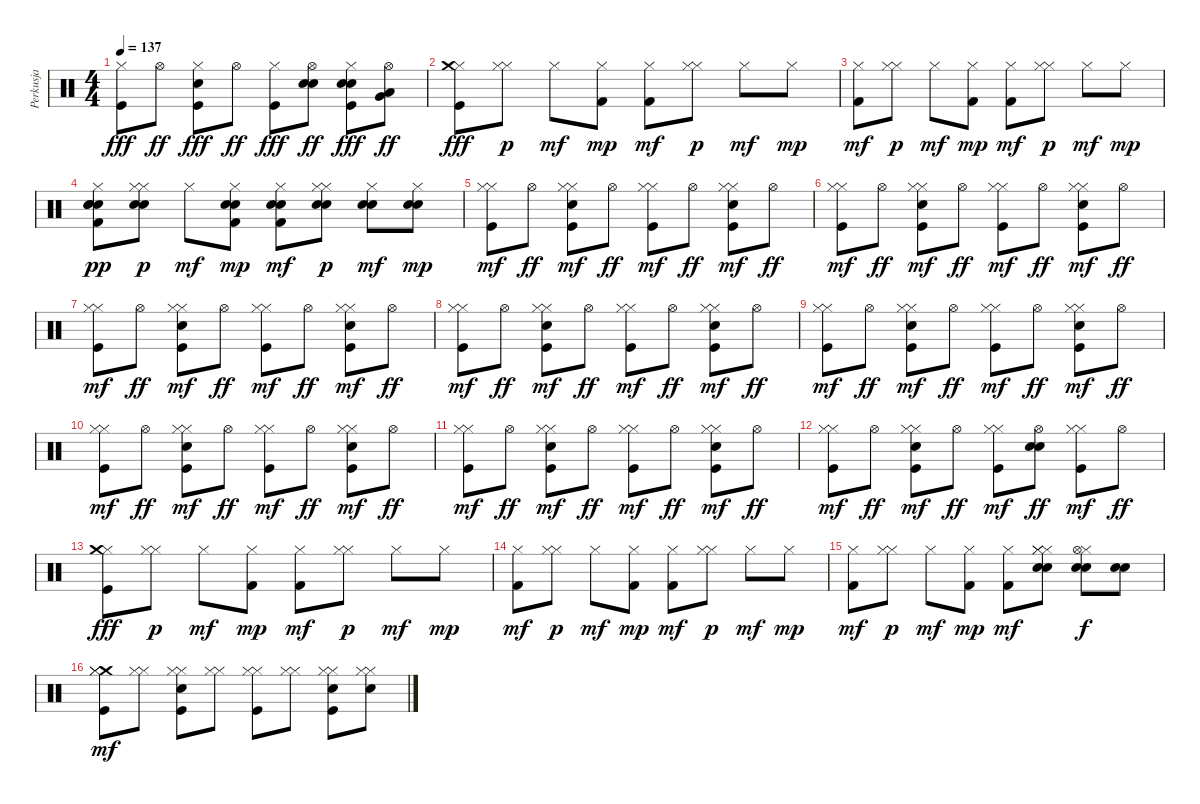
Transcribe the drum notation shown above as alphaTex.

\track ("Perkusja" "Perkusja") {instrument percussion}
\staff {score}
\articulation defaults
\ts (4 4)
\tempo 137
\clef neutral
\ks c
("Kick (hit)" "Hi-Hat (closed)").8{dy fff} "Hi-Hat (open)".8{dy ff} ("Electric Snare (hit)" "Kick (hit)" "Hi-Hat (closed)").8{dy fff} "Hi-Hat (open)".8{dy ff} ("Kick (hit)" "Hi-Hat (closed)").8{dy fff} ("Electric Snare (hit)" "Hi-Hat (open)" "Electric Snare (hit)").8{dy ff} ("Electric Snare (hit)" "Kick (hit)" "Hi-Hat (closed)" "Electric Snare (hit)").8{dy fff} ("Low Tom (hit)" "Hi-Hat (open)" "Very Low Tom (hit)").8{dy ff} |
("Hi-Hat (closed)" "Crash medium (hit)" "Kick (hit)").8{dy fff} ("Hi-Hat (closed)" "Hi-Hat (closed)").8{dy p} "Hi-Hat (closed)".8{dy mf} ("Hi-Hat (closed)" "Kick (hit) 2").8{dy mp} ("Hi-Hat (closed)" "Kick (hit) 2").8{dy mf} ("Hi-Hat (closed)" "Hi-Hat (closed)").8{dy p} "Hi-Hat (closed)".8{dy mf} "Hi-Hat (closed)".8{dy mp} |
("Hi-Hat (closed)" "Kick (hit) 2").8{dy mf} ("Hi-Hat (closed)" "Hi-Hat (closed)").8{dy p} "Hi-Hat (closed)".8{dy mf} ("Hi-Hat (closed)" "Kick (hit) 2").8{dy mp} ("Hi-Hat (closed)" "Kick (hit) 2").8{dy mf} ("Hi-Hat (closed)" "Hi-Hat (closed)").8{dy p} "Hi-Hat (closed)".8{dy mf} "Hi-Hat (closed)".8{dy mp} |
("Snare (hit) 2" "Kick (hit) 2" "Hi-Hat (closed)" "Snare (hit) 2" "Snare (hit) 2").8{dy pp} ("Snare (hit) 2" "Snare (hit) 2" "Hi-Hat (closed)" "Hi-Hat (closed)").8{dy p} "Hi-Hat (closed)".8{dy mf} ("Snare (hit) 2" "Hi-Hat (closed)" "Kick (hit) 2" "Snare (hit) 2").8{dy mp} ("Snare (hit) 2" "Hi-Hat (closed)" "Kick (hit) 2" "Snare (hit) 2").8{dy mf} ("Electric Snare (hit)" "Hi-Hat (closed)" "Electric Snare (hit)" "Hi-Hat (closed)").8{dy p} ("Electric Snare (hit)" "Hi-Hat (closed)" "Electric Snare (hit)").8{dy mf} ("Electric Snare (hit)" "Hi-Hat (closed)" "Electric Snare (hit)").8{dy mp} |
("Kick (hit)" "Hi-Hat (closed)" "Hi-Hat (closed)").8{dy mf} "Hi-Hat (open)".8{dy ff} ("Electric Snare (hit)" "Kick (hit)" "Hi-Hat (closed)" "Hi-Hat (closed)").8{dy mf} "Hi-Hat (open)".8{dy ff} ("Kick (hit)" "Hi-Hat (closed)" "Hi-Hat (closed)").8{dy mf} "Hi-Hat (open)".8{dy ff} ("Electric Snare (hit)" "Kick (hit)" "Hi-Hat (closed)" "Hi-Hat (closed)").8{dy mf} "Hi-Hat (open)".8{dy ff} |
("Kick (hit)" "Hi-Hat (closed)" "Hi-Hat (closed)").8{dy mf} "Hi-Hat (open)".8{dy ff} ("Electric Snare (hit)" "Kick (hit)" "Hi-Hat (closed)" "Hi-Hat (closed)").8{dy mf} "Hi-Hat (open)".8{dy ff} ("Kick (hit)" "Hi-Hat (closed)" "Hi-Hat (closed)").8{dy mf} "Hi-Hat (open)".8{dy ff} ("Electric Snare (hit)" "Kick (hit)" "Hi-Hat (closed)" "Hi-Hat (closed)").8{dy mf} "Hi-Hat (open)".8{dy ff} |
("Kick (hit)" "Hi-Hat (closed)" "Hi-Hat (closed)").8{dy mf} "Hi-Hat (open)".8{dy ff} ("Electric Snare (hit)" "Kick (hit)" "Hi-Hat (closed)" "Hi-Hat (closed)").8{dy mf} "Hi-Hat (open)".8{dy ff} ("Kick (hit)" "Hi-Hat (closed)" "Hi-Hat (closed)").8{dy mf} "Hi-Hat (open)".8{dy ff} ("Electric Snare (hit)" "Kick (hit)" "Hi-Hat (closed)" "Hi-Hat (closed)").8{dy mf} "Hi-Hat (open)".8{dy ff} |
("Kick (hit)" "Hi-Hat (closed)" "Hi-Hat (closed)").8{dy mf} "Hi-Hat (open)".8{dy ff} ("Electric Snare (hit)" "Kick (hit)" "Hi-Hat (closed)" "Hi-Hat (closed)").8{dy mf} "Hi-Hat (open)".8{dy ff} ("Kick (hit)" "Hi-Hat (closed)" "Hi-Hat (closed)").8{dy mf} "Hi-Hat (open)".8{dy ff} ("Electric Snare (hit)" "Kick (hit)" "Hi-Hat (closed)" "Hi-Hat (closed)").8{dy mf} "Hi-Hat (open)".8{dy ff} |
("Kick (hit)" "Hi-Hat (closed)" "Hi-Hat (closed)").8{dy mf} "Hi-Hat (open)".8{dy ff} ("Electric Snare (hit)" "Kick (hit)" "Hi-Hat (closed)" "Hi-Hat (closed)").8{dy mf} "Hi-Hat (open)".8{dy ff} ("Kick (hit)" "Hi-Hat (closed)" "Hi-Hat (closed)").8{dy mf} "Hi-Hat (open)".8{dy ff} ("Electric Snare (hit)" "Kick (hit)" "Hi-Hat (closed)" "Hi-Hat (closed)").8{dy mf} "Hi-Hat (open)".8{dy ff} |
("Kick (hit)" "Hi-Hat (closed)" "Hi-Hat (closed)").8{dy mf} "Hi-Hat (open)".8{dy ff} ("Electric Snare (hit)" "Kick (hit)" "Hi-Hat (closed)" "Hi-Hat (closed)").8{dy mf} "Hi-Hat (open)".8{dy ff} ("Kick (hit)" "Hi-Hat (closed)" "Hi-Hat (closed)").8{dy mf} "Hi-Hat (open)".8{dy ff} ("Electric Snare (hit)" "Kick (hit)" "Hi-Hat (closed)" "Hi-Hat (closed)").8{dy mf} "Hi-Hat (open)".8{dy ff} |
("Kick (hit)" "Hi-Hat (closed)" "Hi-Hat (closed)").8{dy mf} "Hi-Hat (open)".8{dy ff} ("Electric Snare (hit)" "Kick (hit)" "Hi-Hat (closed)" "Hi-Hat (closed)").8{dy mf} "Hi-Hat (open)".8{dy ff} ("Kick (hit)" "Hi-Hat (closed)" "Hi-Hat (closed)").8{dy mf} "Hi-Hat (open)".8{dy ff} ("Electric Snare (hit)" "Kick (hit)" "Hi-Hat (closed)" "Hi-Hat (closed)").8{dy mf} "Hi-Hat (open)".8{dy ff} |
("Kick (hit)" "Hi-Hat (closed)" "Hi-Hat (closed)").8{dy mf} "Hi-Hat (open)".8{dy ff} ("Electric Snare (hit)" "Kick (hit)" "Hi-Hat (closed)" "Hi-Hat (closed)").8{dy mf} "Hi-Hat (open)".8{dy ff} ("Kick (hit)" "Hi-Hat (closed)" "Hi-Hat (closed)").8{dy mf} ("Electric Snare (hit)" "Hi-Hat (open)" "Electric Snare (hit)").8{dy ff} ("Kick (hit)" "Hi-Hat (closed)" "Hi-Hat (closed)").8{dy mf} "Hi-Hat (open)".8{dy ff} |
("Hi-Hat (closed)" "Crash medium (hit)" "Kick (hit)").8{dy fff} ("Hi-Hat (closed)" "Hi-Hat (closed)").8{dy p} "Hi-Hat (closed)".8{dy mf} ("Hi-Hat (closed)" "Kick (hit) 2").8{dy mp} ("Hi-Hat (closed)" "Kick (hit) 2").8{dy mf} ("Hi-Hat (closed)" "Hi-Hat (closed)").8{dy p} "Hi-Hat (closed)".8{dy mf} "Hi-Hat (closed)".8{dy mp} |
("Hi-Hat (closed)" "Kick (hit) 2").8{dy mf} ("Hi-Hat (closed)" "Hi-Hat (closed)").8{dy p} "Hi-Hat (closed)".8{dy mf} ("Hi-Hat (closed)" "Kick (hit) 2").8{dy mp} ("Hi-Hat (closed)" "Kick (hit) 2").8{dy mf} ("Hi-Hat (closed)" "Hi-Hat (closed)").8{dy p} "Hi-Hat (closed)".8{dy mf} "Hi-Hat (closed)".8{dy mp} |
("Hi-Hat (closed)" "Kick (hit) 2").8{dy mf} ("Hi-Hat (closed)" "Hi-Hat (closed)").8{dy p} "Hi-Hat (closed)".8{dy mf} ("Hi-Hat (closed)" "Kick (hit) 2").8{dy mp} ("Hi-Hat (closed)" "Kick (hit) 2").8{dy mf} ("Electric Snare (hit)" "Hi-Hat (closed)" "Hi-Hat (closed)" "Electric Snare (hit)" "Hi-Hat (closed)").8 ("Hi-Hat (closed)" "Electric Snare (hit)" "Hi-Hat (open)" "Electric Snare (hit)").8{dy f} ("Electric Snare (hit)" "Electric Snare (hit)").8 |
("Crash medium (hit)" "Kick (hit)" "Hi-Hat (closed)" "Hi-Hat (closed)").8{dy mf} ("Hi-Hat (closed)" "Hi-Hat (closed)").8 ("Electric Snare (hit)" "Kick (hit)" "Hi-Hat (closed)" "Hi-Hat (closed)").8 ("Hi-Hat (closed)" "Hi-Hat (closed)").8 ("Kick (hit)" "Hi-Hat (closed)" "Hi-Hat (closed)").8 ("Hi-Hat (closed)" "Hi-Hat (closed)").8 ("Electric Snare (hit)" "Kick (hit)" "Hi-Hat (closed)" "Hi-Hat (closed)").8 ("Electric Snare (hit)" "Hi-Hat (closed)" "Hi-Hat (closed)").8
